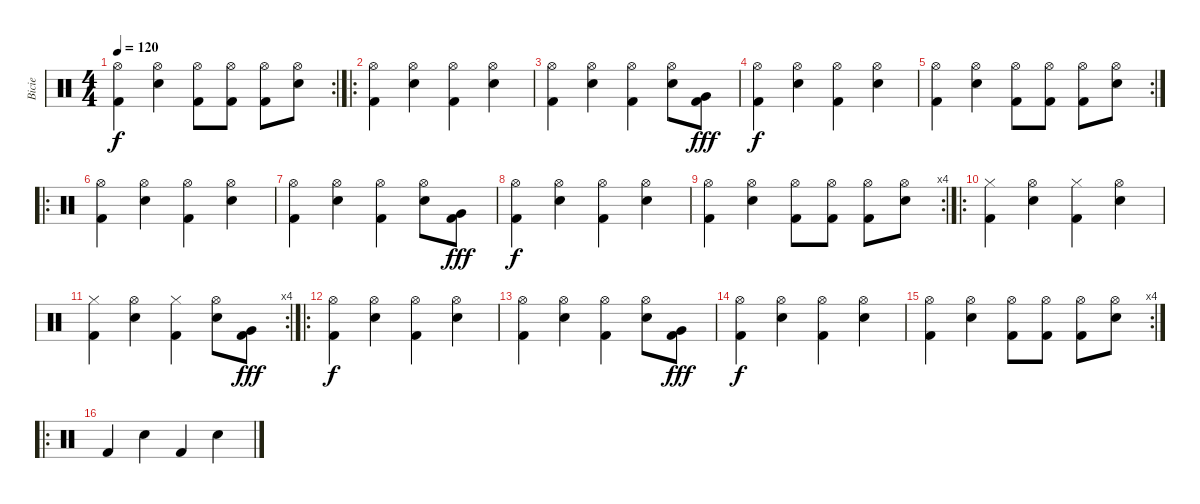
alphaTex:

\track ("Bicie" "Bicie") {instrument percussion}
\staff {score}
\articulation defaults
\rc 2
\ts (4 4)
\tempo 120
\clef neutral
\ks c
("Hi-Hat (open)" "Kick (hit) 2").4{dy f} ("Hi-Hat (open)" "Snare (hit) 2").4 ("Hi-Hat (open)" "Kick (hit) 2").8 ("Hi-Hat (open)" "Kick (hit) 2").8 ("Hi-Hat (open)" "Kick (hit) 2").8 ("Hi-Hat (open)" "Snare (hit) 2").8 |
\ro
("Hi-Hat (open)" "Kick (hit) 2").4 ("Hi-Hat (open)" "Snare (hit) 2").4 ("Hi-Hat (open)" "Kick (hit) 2").4 ("Hi-Hat (open)" "Snare (hit) 2").4 |
("Hi-Hat (open)" "Kick (hit) 2").4 ("Hi-Hat (open)" "Snare (hit) 2").4 ("Hi-Hat (open)" "Kick (hit) 2").4 ("Hi-Hat (open)" "Snare (hit) 2").8 ("Kick (hit) 2" "Very Low Tom (hit)").8{dy fff} |
("Hi-Hat (open)" "Kick (hit) 2").4{dy f} ("Hi-Hat (open)" "Snare (hit) 2").4 ("Hi-Hat (open)" "Kick (hit) 2").4 ("Hi-Hat (open)" "Snare (hit) 2").4 |
\rc 2
("Hi-Hat (open)" "Kick (hit) 2").4 ("Hi-Hat (open)" "Snare (hit) 2").4 ("Hi-Hat (open)" "Kick (hit) 2").8 ("Hi-Hat (open)" "Kick (hit) 2").8 ("Hi-Hat (open)" "Kick (hit) 2").8 ("Hi-Hat (open)" "Snare (hit) 2").8 |
\ro
("Hi-Hat (open)" "Kick (hit) 2").4 ("Hi-Hat (open)" "Snare (hit) 2").4 ("Hi-Hat (open)" "Kick (hit) 2").4 ("Hi-Hat (open)" "Snare (hit) 2").4 |
("Hi-Hat (open)" "Kick (hit) 2").4 ("Hi-Hat (open)" "Snare (hit) 2").4 ("Hi-Hat (open)" "Kick (hit) 2").4 ("Hi-Hat (open)" "Snare (hit) 2").8 ("Kick (hit) 2" "Very Low Tom (hit)").8{dy fff} |
("Hi-Hat (open)" "Kick (hit) 2").4{dy f} ("Hi-Hat (open)" "Snare (hit) 2").4 ("Hi-Hat (open)" "Kick (hit) 2").4 ("Hi-Hat (open)" "Snare (hit) 2").4 |
\rc 4
("Hi-Hat (open)" "Kick (hit) 2").4 ("Hi-Hat (open)" "Snare (hit) 2").4 ("Hi-Hat (open)" "Kick (hit) 2").8 ("Hi-Hat (open)" "Kick (hit) 2").8 ("Hi-Hat (open)" "Kick (hit) 2").8 ("Hi-Hat (open)" "Snare (hit) 2").8 |
\ro
("Hi-Hat (closed)" "Kick (hit) 2").4 ("Hi-Hat (open)" "Snare (hit) 2").4 ("Hi-Hat (closed)" "Kick (hit) 2").4 ("Hi-Hat (open)" "Snare (hit) 2").4 |
\rc 4
("Hi-Hat (closed)" "Kick (hit) 2").4 ("Hi-Hat (open)" "Snare (hit) 2").4 ("Hi-Hat (closed)" "Kick (hit) 2").4 ("Hi-Hat (open)" "Snare (hit) 2").8 ("Kick (hit) 2" "Very Low Tom (hit)").8{dy fff} |
\ro
("Hi-Hat (open)" "Kick (hit) 2").4{dy f} ("Hi-Hat (open)" "Snare (hit) 2").4 ("Hi-Hat (open)" "Kick (hit) 2").4 ("Hi-Hat (open)" "Snare (hit) 2").4 |
("Hi-Hat (open)" "Kick (hit) 2").4 ("Hi-Hat (open)" "Snare (hit) 2").4 ("Hi-Hat (open)" "Kick (hit) 2").4 ("Hi-Hat (open)" "Snare (hit) 2").8 ("Kick (hit) 2" "Very Low Tom (hit)").8{dy fff} |
("Hi-Hat (open)" "Kick (hit) 2").4{dy f} ("Hi-Hat (open)" "Snare (hit) 2").4 ("Hi-Hat (open)" "Kick (hit) 2").4 ("Hi-Hat (open)" "Snare (hit) 2").4 |
\rc 4
("Hi-Hat (open)" "Kick (hit) 2").4 ("Hi-Hat (open)" "Snare (hit) 2").4 ("Hi-Hat (open)" "Kick (hit) 2").8 ("Hi-Hat (open)" "Kick (hit) 2").8 ("Hi-Hat (open)" "Kick (hit) 2").8 ("Hi-Hat (open)" "Snare (hit) 2").8 |
\ro "Kick (hit) 2".4 "Snare (hit) 2".4 "Kick (hit) 2".4 "Snare (hit) 2".4
